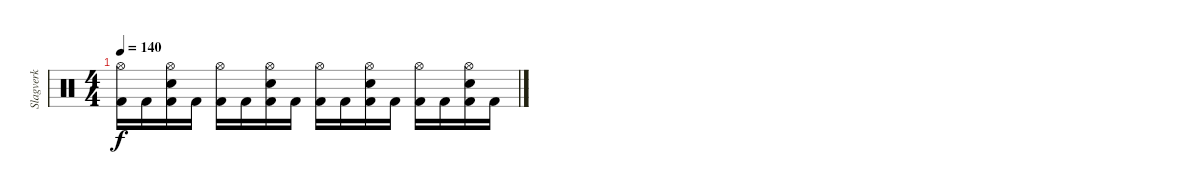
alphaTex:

\track ("Slagverk" "Slagverk") {instrument percussion}
\staff {score}
\articulation defaults
\ts (4 4)
\tempo 140
\clef neutral
\ks c
("Hi-Hat (open)" "Kick (hit) 2").16{dy f} "Kick (hit) 2".16 ("Hi-Hat (open)" "Electric Snare (hit)" "Kick (hit) 2").16 "Kick (hit) 2".16 ("Hi-Hat (open)" "Kick (hit) 2").16 "Kick (hit) 2".16 ("Hi-Hat (open)" "Electric Snare (hit)" "Kick (hit) 2").16 "Kick (hit) 2".16 ("Hi-Hat (open)" "Kick (hit) 2").16 "Kick (hit) 2".16 ("Hi-Hat (open)" "Electric Snare (hit)" "Kick (hit) 2").16 "Kick (hit) 2".16 ("Hi-Hat (open)" "Kick (hit) 2").16 "Kick (hit) 2".16 ("Hi-Hat (open)" "Electric Snare (hit)" "Kick (hit) 2").16 "Kick (hit) 2".16
